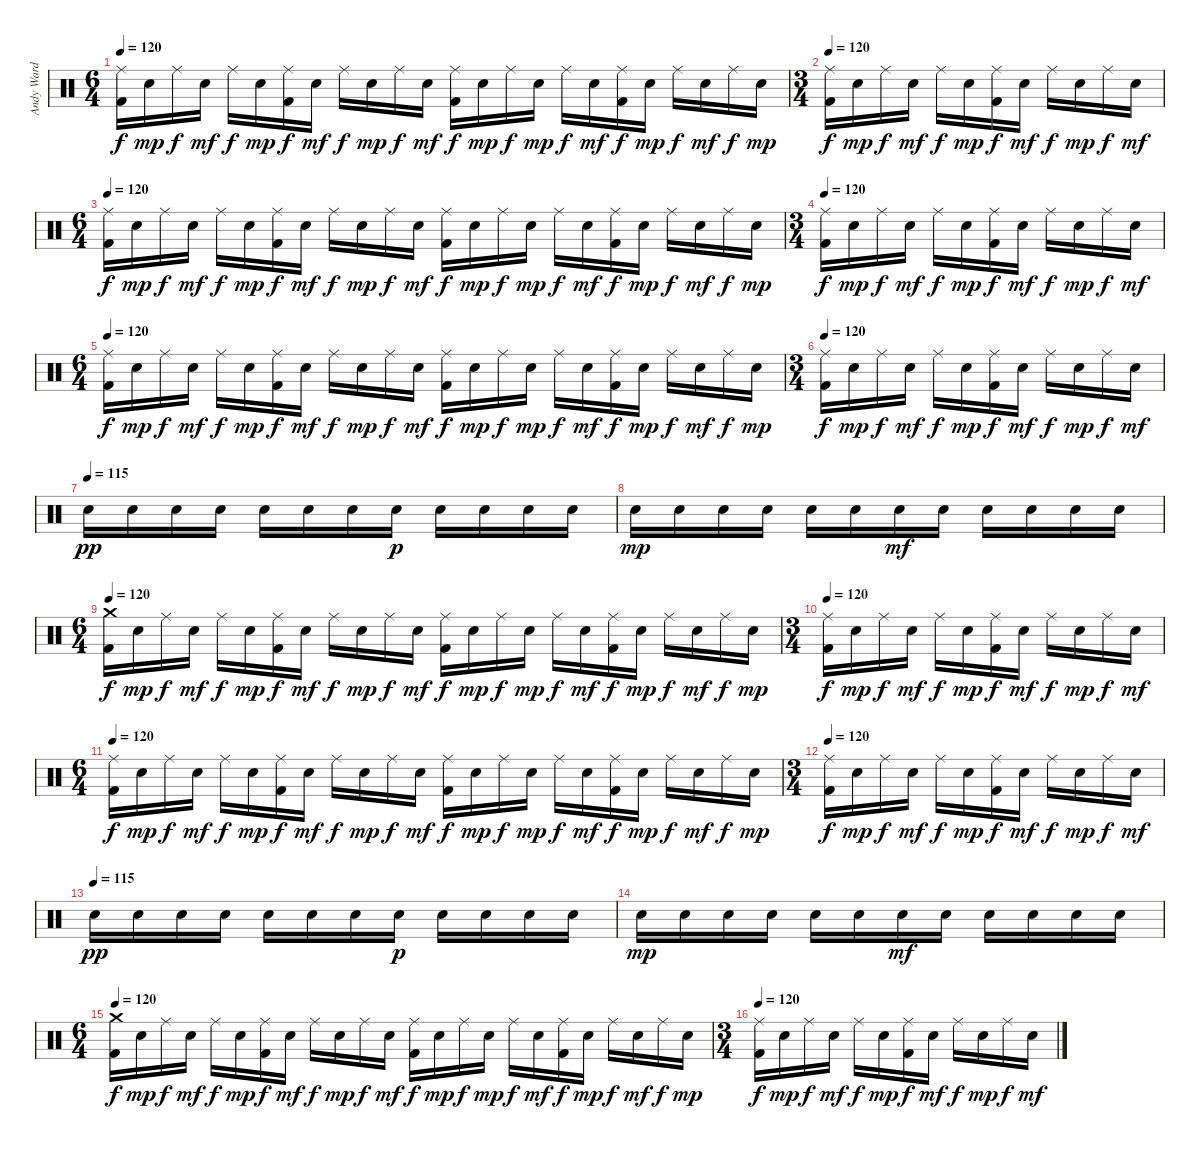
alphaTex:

\track ("Andy Ward - Drums" "Andy Ward ") {instrument percussion}
\staff {score}
\articulation defaults
\ts (6 4)
\tempo 120
\clef neutral
\ks c
("Ride (middle)" "Kick (hit) 2").16{dy f} "Electric Snare (hit)".16{dy mp} "Ride (middle)".16{dy f} "Electric Snare (hit)".16{dy mf} "Ride (middle)".16{dy f} "Electric Snare (hit)".16{dy mp} ("Ride (middle)" "Kick (hit) 2").16{dy f} "Electric Snare (hit)".16{dy mf} "Ride (middle)".16{dy f} "Electric Snare (hit)".16{dy mp} "Ride (middle)".16{dy f} "Electric Snare (hit)".16{dy mf} ("Ride (middle)" "Kick (hit) 2").16{dy f} "Electric Snare (hit)".16{dy mp} "Ride (middle)".16{dy f} "Electric Snare (hit)".16{dy mp} "Ride (middle)".16{dy f} "Electric Snare (hit)".16{dy mf} ("Ride (middle)" "Kick (hit) 2").16{dy f} "Electric Snare (hit)".16{dy mp} "Ride (middle)".16{dy f} "Electric Snare (hit)".16{dy mf} "Ride (middle)".16{dy f} "Electric Snare (hit)".16{dy mp} |
\ts (3 4)
\tempo 120
("Ride (middle)" "Kick (hit) 2").16{dy f} "Electric Snare (hit)".16{dy mp} "Ride (middle)".16{dy f} "Electric Snare (hit)".16{dy mf} "Ride (middle)".16{dy f} "Electric Snare (hit)".16{dy mp} ("Ride (middle)" "Kick (hit) 2").16{dy f} "Electric Snare (hit)".16{dy mf} "Ride (middle)".16{dy f} "Electric Snare (hit)".16{dy mp} "Ride (middle)".16{dy f} "Electric Snare (hit)".16{dy mf} |
\ts (6 4)
\tempo 120
("Ride (middle)" "Kick (hit) 2").16{dy f} "Electric Snare (hit)".16{dy mp} "Ride (middle)".16{dy f} "Electric Snare (hit)".16{dy mf} "Ride (middle)".16{dy f} "Electric Snare (hit)".16{dy mp} ("Ride (middle)" "Kick (hit) 2").16{dy f} "Electric Snare (hit)".16{dy mf} "Ride (middle)".16{dy f} "Electric Snare (hit)".16{dy mp} "Ride (middle)".16{dy f} "Electric Snare (hit)".16{dy mf} ("Ride (middle)" "Kick (hit) 2").16{dy f} "Electric Snare (hit)".16{dy mp} "Ride (middle)".16{dy f} "Electric Snare (hit)".16{dy mp} "Ride (middle)".16{dy f} "Electric Snare (hit)".16{dy mf} ("Ride (middle)" "Kick (hit) 2").16{dy f} "Electric Snare (hit)".16{dy mp} "Ride (middle)".16{dy f} "Electric Snare (hit)".16{dy mf} "Ride (middle)".16{dy f} "Electric Snare (hit)".16{dy mp} |
\ts (3 4)
\tempo 120
("Ride (middle)" "Kick (hit) 2").16{dy f} "Electric Snare (hit)".16{dy mp} "Ride (middle)".16{dy f} "Electric Snare (hit)".16{dy mf} "Ride (middle)".16{dy f} "Electric Snare (hit)".16{dy mp} ("Ride (middle)" "Kick (hit) 2").16{dy f} "Electric Snare (hit)".16{dy mf} "Ride (middle)".16{dy f} "Electric Snare (hit)".16{dy mp} "Ride (middle)".16{dy f} "Electric Snare (hit)".16{dy mf} |
\ts (6 4)
\tempo 120
("Ride (middle)" "Kick (hit) 2").16{dy f} "Electric Snare (hit)".16{dy mp} "Ride (middle)".16{dy f} "Electric Snare (hit)".16{dy mf} "Ride (middle)".16{dy f} "Electric Snare (hit)".16{dy mp} ("Ride (middle)" "Kick (hit) 2").16{dy f} "Electric Snare (hit)".16{dy mf} "Ride (middle)".16{dy f} "Electric Snare (hit)".16{dy mp} "Ride (middle)".16{dy f} "Electric Snare (hit)".16{dy mf} ("Ride (middle)" "Kick (hit) 2").16{dy f} "Electric Snare (hit)".16{dy mp} "Ride (middle)".16{dy f} "Electric Snare (hit)".16{dy mp} "Ride (middle)".16{dy f} "Electric Snare (hit)".16{dy mf} ("Ride (middle)" "Kick (hit) 2").16{dy f} "Electric Snare (hit)".16{dy mp} "Ride (middle)".16{dy f} "Electric Snare (hit)".16{dy mf} "Ride (middle)".16{dy f} "Electric Snare (hit)".16{dy mp} |
\ts (3 4)
\tempo 120
("Ride (middle)" "Kick (hit) 2").16{dy f} "Electric Snare (hit)".16{dy mp} "Ride (middle)".16{dy f} "Electric Snare (hit)".16{dy mf} "Ride (middle)".16{dy f} "Electric Snare (hit)".16{dy mp} ("Ride (middle)" "Kick (hit) 2").16{dy f} "Electric Snare (hit)".16{dy mf} "Ride (middle)".16{dy f} "Electric Snare (hit)".16{dy mp} "Ride (middle)".16{dy f} "Electric Snare (hit)".16{dy mf} |
\tempo (115)
"Electric Snare (hit)".16{dy pp} "Electric Snare (hit)".16 "Electric Snare (hit)".16 "Electric Snare (hit)".16 "Electric Snare (hit)".16 "Electric Snare (hit)".16 "Electric Snare (hit)".16 "Electric Snare (hit)".16{dy p} "Electric Snare (hit)".16 "Electric Snare (hit)".16 "Electric Snare (hit)".16 "Electric Snare (hit)".16 |
"Electric Snare (hit)".16{dy mp} "Electric Snare (hit)".16 "Electric Snare (hit)".16 "Electric Snare (hit)".16 "Electric Snare (hit)".16 "Electric Snare (hit)".16 "Electric Snare (hit)".16{dy mf} "Electric Snare (hit)".16 "Electric Snare (hit)".16 "Electric Snare (hit)".16 "Electric Snare (hit)".16 "Electric Snare (hit)".16 |
\ts (6 4)
\tempo 120
("Crash medium (hit)" "Kick (hit) 2").16{dy f} "Electric Snare (hit)".16{dy mp} "Ride (middle)".16{dy f} "Electric Snare (hit)".16{dy mf} "Ride (middle)".16{dy f} "Electric Snare (hit)".16{dy mp} ("Ride (middle)" "Kick (hit) 2").16{dy f} "Electric Snare (hit)".16{dy mf} "Ride (middle)".16{dy f} "Electric Snare (hit)".16{dy mp} "Ride (middle)".16{dy f} "Electric Snare (hit)".16{dy mf} ("Ride (middle)" "Kick (hit) 2").16{dy f} "Electric Snare (hit)".16{dy mp} "Ride (middle)".16{dy f} "Electric Snare (hit)".16{dy mp} "Ride (middle)".16{dy f} "Electric Snare (hit)".16{dy mf} ("Ride (middle)" "Kick (hit) 2").16{dy f} "Electric Snare (hit)".16{dy mp} "Ride (middle)".16{dy f} "Electric Snare (hit)".16{dy mf} "Ride (middle)".16{dy f} "Electric Snare (hit)".16{dy mp} |
\ts (3 4)
\tempo 120
("Ride (middle)" "Kick (hit) 2").16{dy f} "Electric Snare (hit)".16{dy mp} "Ride (middle)".16{dy f} "Electric Snare (hit)".16{dy mf} "Ride (middle)".16{dy f} "Electric Snare (hit)".16{dy mp} ("Ride (middle)" "Kick (hit) 2").16{dy f} "Electric Snare (hit)".16{dy mf} "Ride (middle)".16{dy f} "Electric Snare (hit)".16{dy mp} "Ride (middle)".16{dy f} "Electric Snare (hit)".16{dy mf} |
\ts (6 4)
\tempo 120
("Ride (middle)" "Kick (hit) 2").16{dy f} "Electric Snare (hit)".16{dy mp} "Ride (middle)".16{dy f} "Electric Snare (hit)".16{dy mf} "Ride (middle)".16{dy f} "Electric Snare (hit)".16{dy mp} ("Ride (middle)" "Kick (hit) 2").16{dy f} "Electric Snare (hit)".16{dy mf} "Ride (middle)".16{dy f} "Electric Snare (hit)".16{dy mp} "Ride (middle)".16{dy f} "Electric Snare (hit)".16{dy mf} ("Ride (middle)" "Kick (hit) 2").16{dy f} "Electric Snare (hit)".16{dy mp} "Ride (middle)".16{dy f} "Electric Snare (hit)".16{dy mp} "Ride (middle)".16{dy f} "Electric Snare (hit)".16{dy mf} ("Ride (middle)" "Kick (hit) 2").16{dy f} "Electric Snare (hit)".16{dy mp} "Ride (middle)".16{dy f} "Electric Snare (hit)".16{dy mf} "Ride (middle)".16{dy f} "Electric Snare (hit)".16{dy mp} |
\ts (3 4)
\tempo 120
("Ride (middle)" "Kick (hit) 2").16{dy f} "Electric Snare (hit)".16{dy mp} "Ride (middle)".16{dy f} "Electric Snare (hit)".16{dy mf} "Ride (middle)".16{dy f} "Electric Snare (hit)".16{dy mp} ("Ride (middle)" "Kick (hit) 2").16{dy f} "Electric Snare (hit)".16{dy mf} "Ride (middle)".16{dy f} "Electric Snare (hit)".16{dy mp} "Ride (middle)".16{dy f} "Electric Snare (hit)".16{dy mf} |
\tempo (115)
"Electric Snare (hit)".16{dy pp} "Electric Snare (hit)".16 "Electric Snare (hit)".16 "Electric Snare (hit)".16 "Electric Snare (hit)".16 "Electric Snare (hit)".16 "Electric Snare (hit)".16 "Electric Snare (hit)".16{dy p} "Electric Snare (hit)".16 "Electric Snare (hit)".16 "Electric Snare (hit)".16 "Electric Snare (hit)".16 |
"Electric Snare (hit)".16{dy mp} "Electric Snare (hit)".16 "Electric Snare (hit)".16 "Electric Snare (hit)".16 "Electric Snare (hit)".16 "Electric Snare (hit)".16 "Electric Snare (hit)".16{dy mf} "Electric Snare (hit)".16 "Electric Snare (hit)".16 "Electric Snare (hit)".16 "Electric Snare (hit)".16 "Electric Snare (hit)".16 |
\ts (6 4)
\tempo 120
("Crash medium (hit)" "Kick (hit) 2").16{dy f} "Electric Snare (hit)".16{dy mp} "Ride (middle)".16{dy f} "Electric Snare (hit)".16{dy mf} "Ride (middle)".16{dy f} "Electric Snare (hit)".16{dy mp} ("Ride (middle)" "Kick (hit) 2").16{dy f} "Electric Snare (hit)".16{dy mf} "Ride (middle)".16{dy f} "Electric Snare (hit)".16{dy mp} "Ride (middle)".16{dy f} "Electric Snare (hit)".16{dy mf} ("Ride (middle)" "Kick (hit) 2").16{dy f} "Electric Snare (hit)".16{dy mp} "Ride (middle)".16{dy f} "Electric Snare (hit)".16{dy mp} "Ride (middle)".16{dy f} "Electric Snare (hit)".16{dy mf} ("Ride (middle)" "Kick (hit) 2").16{dy f} "Electric Snare (hit)".16{dy mp} "Ride (middle)".16{dy f} "Electric Snare (hit)".16{dy mf} "Ride (middle)".16{dy f} "Electric Snare (hit)".16{dy mp} |
\ts (3 4)
\tempo 120
("Ride (middle)" "Kick (hit) 2").16{dy f} "Electric Snare (hit)".16{dy mp} "Ride (middle)".16{dy f} "Electric Snare (hit)".16{dy mf} "Ride (middle)".16{dy f} "Electric Snare (hit)".16{dy mp} ("Ride (middle)" "Kick (hit) 2").16{dy f} "Electric Snare (hit)".16{dy mf} "Ride (middle)".16{dy f} "Electric Snare (hit)".16{dy mp} "Ride (middle)".16{dy f} "Electric Snare (hit)".16{dy mf}
